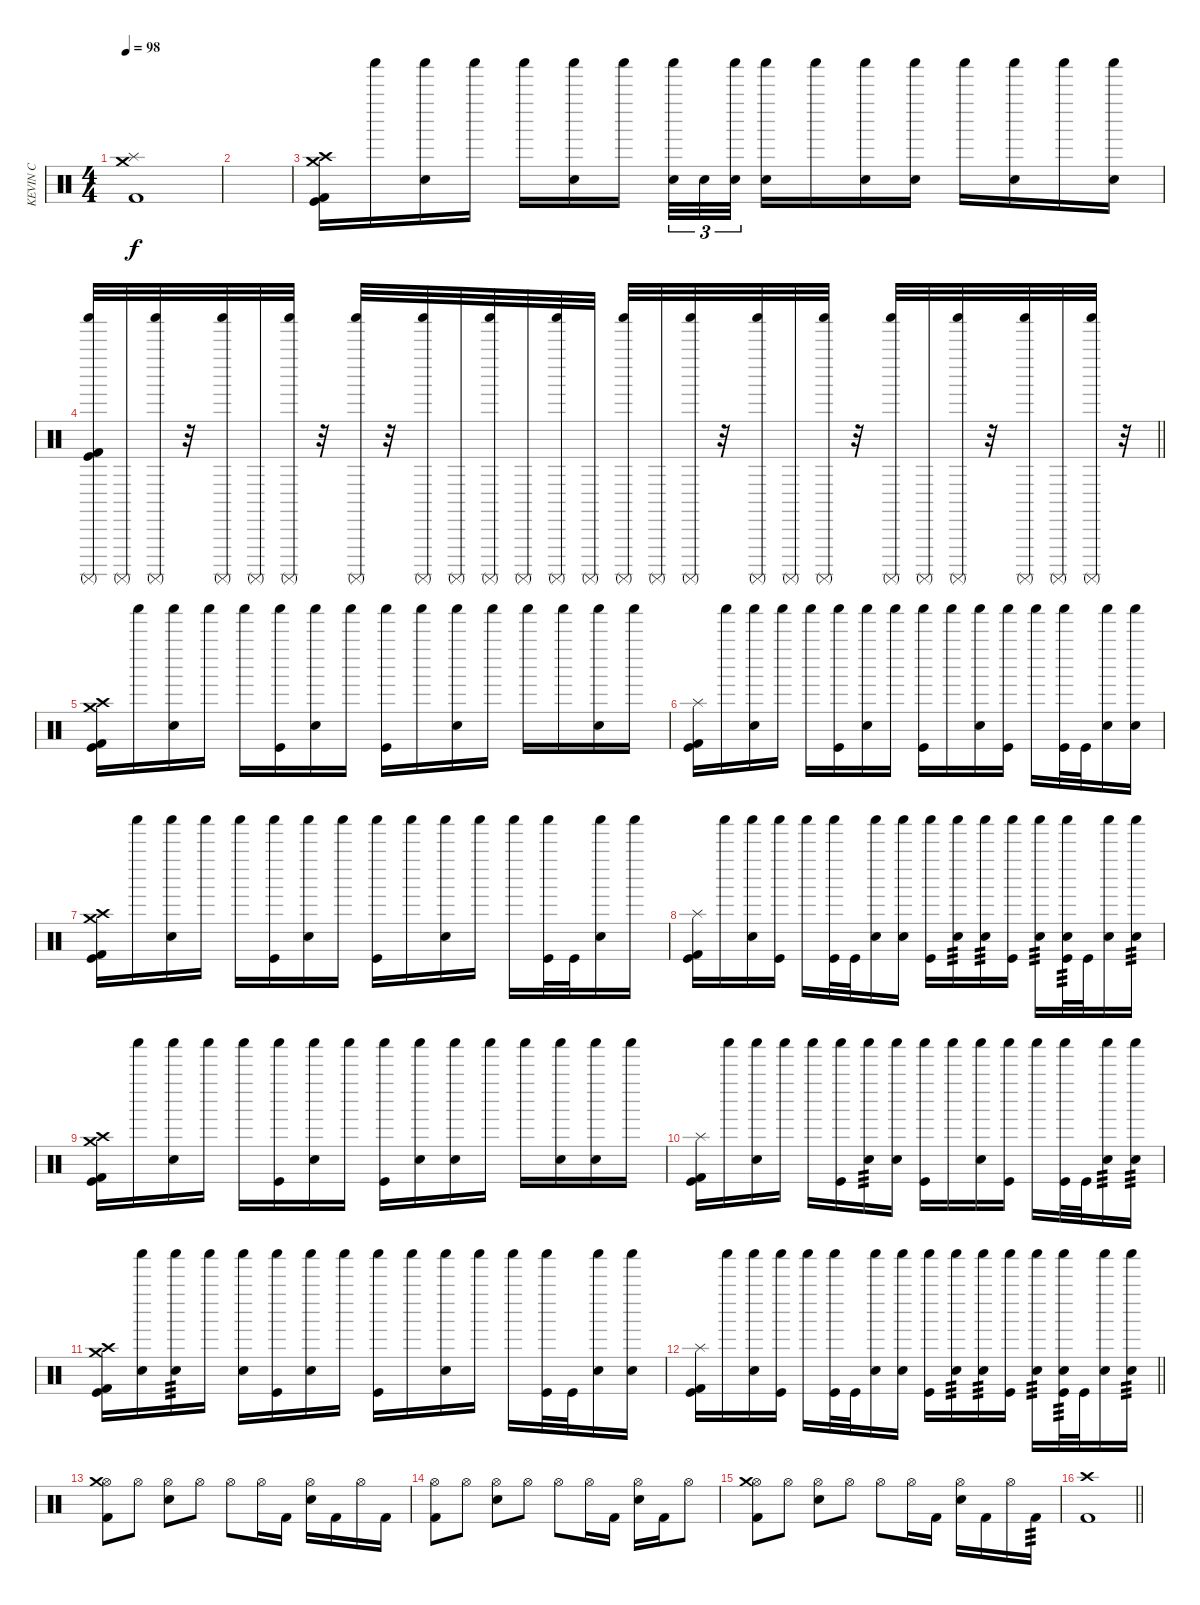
\track ("KEVIN C" "KEVIN C") {instrument percussion}
\staff {score}
\articulation defaults
\ts (4 4)
\tempo 98
\clef neutral
\ks c
("Crash medium (hit)" "Splash (hit)" "Kick (hit) 2").1{dy f} |
|
("Crash medium (hit)" "Crash high (hit)" "Kick (hit) 2" "Kick (hit)").16 "Shaker (hit)".16 ("Shaker (hit)" "Electric Snare (hit)").16 "Shaker (hit)".16 "Shaker (hit)".16 ("Shaker (hit)" "Electric Snare (hit)").16 "Shaker (hit)".16{beam splitsecondary} ("Shaker (hit)" "Electric Snare (hit)").32{tu (3 2)} "Electric Snare (hit)".32{tu (3 2)} ("Shaker (hit)" "Electric Snare (hit)").32{tu (3 2)} ("Shaker (hit)" "Electric Snare (hit)").16 "Shaker (hit)".16 ("Shaker (hit)" "Electric Snare (hit)").16 ("Shaker (hit)" "Electric Snare (hit)").16 "Shaker (hit)".16 ("Shaker (hit)" "Electric Snare (hit)").16 "Shaker (hit)".16 ("Shaker (hit)" "Electric Snare (hit)").16 |
\barLineRight lightlight
("Shaker (hit)" "Surdo (mute)" "Kick (hit) 2" "Kick (hit)").32 "Surdo (mute)".32 ("Shaker (hit)" "Surdo (mute)").32 r.32 ("Shaker (hit)" "Surdo (mute)").32 "Surdo (mute)".32 ("Shaker (hit)" "Surdo (mute)").32 r.32 ("Shaker (hit)" "Surdo (mute)").32 r.32 ("Shaker (hit)" "Surdo (mute)").32 "Surdo (mute)".32 ("Shaker (hit)" "Surdo (mute)").32 "Surdo (mute)".32 ("Shaker (hit)" "Surdo (mute)").32 "Surdo (mute)".32 ("Shaker (hit)" "Surdo (mute)").32 "Surdo (mute)".32 ("Shaker (hit)" "Surdo (mute)").32 r.32 ("Shaker (hit)" "Surdo (mute)").32 "Surdo (mute)".32 ("Shaker (hit)" "Surdo (mute)").32 r.32 ("Shaker (hit)" "Surdo (mute)").32 "Surdo (mute)".32 ("Shaker (hit)" "Surdo (mute)").32 r.32 ("Shaker (hit)" "Surdo (mute)").32 "Surdo (mute)".32 ("Shaker (hit)" "Surdo (mute)").32 r.32 |
("Crash medium (hit)" "Crash high (hit)" "Kick (hit) 2" "Kick (hit)").16 "Shaker (hit)".16 ("Shaker (hit)" "Electric Snare (hit)").16 "Shaker (hit)".16 "Shaker (hit)".16 ("Shaker (hit)" "Kick (hit)").16 ("Shaker (hit)" "Electric Snare (hit)").16 "Shaker (hit)".16 ("Shaker (hit)" "Kick (hit)").16 "Shaker (hit)".16 ("Shaker (hit)" "Electric Snare (hit)").16 "Shaker (hit)".16 "Shaker (hit)".16 "Shaker (hit)".16 ("Shaker (hit)" "Electric Snare (hit)").16 "Shaker (hit)".16 |
("Splash (hit)" "Kick (hit) 2" "Kick (hit)").16 "Shaker (hit)".16 ("Shaker (hit)" "Electric Snare (hit)").16 "Shaker (hit)".16 "Shaker (hit)".16 ("Shaker (hit)" "Kick (hit)").16 ("Shaker (hit)" "Electric Snare (hit)").16 "Shaker (hit)".16 ("Shaker (hit)" "Kick (hit)").16 "Shaker (hit)".16 ("Shaker (hit)" "Electric Snare (hit)").16 ("Shaker (hit)" "Kick (hit)").16 "Shaker (hit)".16 ("Shaker (hit)" "Kick (hit)").32 "Kick (hit)".32 ("Shaker (hit)" "Electric Snare (hit)").16 ("Shaker (hit)" "Electric Snare (hit)").16 |
("Crash medium (hit)" "Crash high (hit)" "Kick (hit) 2" "Kick (hit)").16 "Shaker (hit)".16 ("Shaker (hit)" "Electric Snare (hit)").16 "Shaker (hit)".16 "Shaker (hit)".16 ("Shaker (hit)" "Kick (hit)").16 ("Shaker (hit)" "Electric Snare (hit)").16 "Shaker (hit)".16 ("Shaker (hit)" "Kick (hit)").16 "Shaker (hit)".16 ("Shaker (hit)" "Electric Snare (hit)").16 "Shaker (hit)".16 "Shaker (hit)".16 ("Shaker (hit)" "Kick (hit)").32 "Kick (hit)".32 ("Shaker (hit)" "Electric Snare (hit)").16 "Shaker (hit)".16 |
("Splash (hit)" "Kick (hit) 2" "Kick (hit)").16 "Shaker (hit)".16 ("Shaker (hit)" "Electric Snare (hit)").16 ("Shaker (hit)" "Kick (hit)").16 "Shaker (hit)".16 ("Shaker (hit)" "Kick (hit)").32 "Kick (hit)".32 ("Shaker (hit)" "Electric Snare (hit)").16 ("Shaker (hit)" "Electric Snare (hit)").16 ("Shaker (hit)" "Kick (hit)").16 ("Shaker (hit)" "Electric Snare (hit)").16{tp 3} ("Shaker (hit)" "Electric Snare (hit)").16{tp 3} ("Shaker (hit)" "Kick (hit)").16 ("Shaker (hit)" "Electric Snare (hit)").16{tp 3} ("Shaker (hit)" "Electric Snare (hit)" "Kick (hit)").32{tp 3} "Kick (hit)".32 ("Shaker (hit)" "Electric Snare (hit)").16 ("Shaker (hit)" "Electric Snare (hit)").16{tp 3} |
("Crash medium (hit)" "Crash high (hit)" "Kick (hit) 2" "Kick (hit)").16 "Shaker (hit)".16 ("Shaker (hit)" "Electric Snare (hit)").16 "Shaker (hit)".16 "Shaker (hit)".16 ("Shaker (hit)" "Kick (hit)").16 ("Shaker (hit)" "Electric Snare (hit)").16 "Shaker (hit)".16 ("Shaker (hit)" "Kick (hit)").16 ("Shaker (hit)" "Electric Snare (hit)").16 ("Shaker (hit)" "Electric Snare (hit)").16 "Shaker (hit)".16 "Shaker (hit)".16 ("Shaker (hit)" "Electric Snare (hit)").16 ("Shaker (hit)" "Electric Snare (hit)").16 "Shaker (hit)".16 |
("Splash (hit)" "Kick (hit) 2" "Kick (hit)").16 "Shaker (hit)".16 ("Shaker (hit)" "Electric Snare (hit)").16 "Shaker (hit)".16 "Shaker (hit)".16 ("Shaker (hit)" "Kick (hit)").16 ("Shaker (hit)" "Electric Snare (hit)").16{tp 3} ("Shaker (hit)" "Electric Snare (hit)").16 ("Shaker (hit)" "Kick (hit)").16 "Shaker (hit)".16 ("Shaker (hit)" "Electric Snare (hit)").16 ("Shaker (hit)" "Kick (hit)").16 "Shaker (hit)".16 ("Shaker (hit)" "Kick (hit)").32 "Kick (hit)".32 ("Shaker (hit)" "Electric Snare (hit)").16{tp 3} ("Shaker (hit)" "Electric Snare (hit)").16{tp 3} |
("Crash medium (hit)" "Crash high (hit)" "Kick (hit) 2" "Kick (hit)").16 ("Shaker (hit)" "Electric Snare (hit)").16 ("Shaker (hit)" "Electric Snare (hit)").16{tp 3} "Shaker (hit)".16 ("Shaker (hit)" "Electric Snare (hit)").16 ("Shaker (hit)" "Kick (hit)").16 ("Shaker (hit)" "Electric Snare (hit)").16 "Shaker (hit)".16 ("Shaker (hit)" "Kick (hit)").16 "Shaker (hit)".16 ("Shaker (hit)" "Electric Snare (hit)").16 "Shaker (hit)".16 "Shaker (hit)".16 ("Shaker (hit)" "Kick (hit)").32 "Kick (hit)".32 ("Shaker (hit)" "Electric Snare (hit)").16 ("Shaker (hit)" "Electric Snare (hit)").16 |
\barLineRight lightlight
("Splash (hit)" "Kick (hit) 2" "Kick (hit)").16 "Shaker (hit)".16 ("Shaker (hit)" "Electric Snare (hit)").16 ("Shaker (hit)" "Kick (hit)").16 "Shaker (hit)".16 ("Shaker (hit)" "Kick (hit)").32 "Kick (hit)".32 ("Shaker (hit)" "Electric Snare (hit)").16 ("Shaker (hit)" "Electric Snare (hit)").16 ("Shaker (hit)" "Kick (hit)").16 ("Shaker (hit)" "Electric Snare (hit)").16{tp 3} ("Shaker (hit)" "Electric Snare (hit)").16{tp 3} ("Shaker (hit)" "Kick (hit)").16 ("Shaker (hit)" "Electric Snare (hit)").16{tp 3} ("Shaker (hit)" "Electric Snare (hit)" "Kick (hit)").32{tp 3} "Kick (hit)".32 ("Shaker (hit)" "Electric Snare (hit)").16 ("Shaker (hit)" "Electric Snare (hit)").16{tp 3} |
("Hi-Hat (open)" "Crash medium (hit)" "Kick (hit) 2").8 "Hi-Hat (open)".8 ("Hi-Hat (open)" "Snare (hit) 2").8 "Hi-Hat (open)".8 "Hi-Hat (open)".8 "Hi-Hat (open)".16 "Kick (hit) 2".16 ("Hi-Hat (open)" "Snare (hit) 2").16 "Kick (hit) 2".16 "Hi-Hat (open)".16 "Kick (hit) 2".16 |
("Hi-Hat (open)" "Kick (hit) 2").8 "Hi-Hat (open)".8 ("Hi-Hat (open)" "Snare (hit) 2").8 "Hi-Hat (open)".8 "Hi-Hat (open)".8 "Hi-Hat (open)".16 "Kick (hit) 2".16 ("Hi-Hat (open)" "Snare (hit) 2").16 "Kick (hit) 2".16 "Hi-Hat (open)".8 |
("Hi-Hat (open)" "Crash medium (hit)" "Kick (hit) 2").8 "Hi-Hat (open)".8 ("Hi-Hat (open)" "Snare (hit) 2").8 "Hi-Hat (open)".8 "Hi-Hat (open)".8 "Hi-Hat (open)".16 "Kick (hit) 2".16 ("Hi-Hat (open)" "Snare (hit) 2").16 "Kick (hit) 2".16 "Hi-Hat (open)".16 "Kick (hit) 2".16{tp 3} |
\barLineRight lightlight
("Crash high (hit)" "Kick (hit) 2").1
